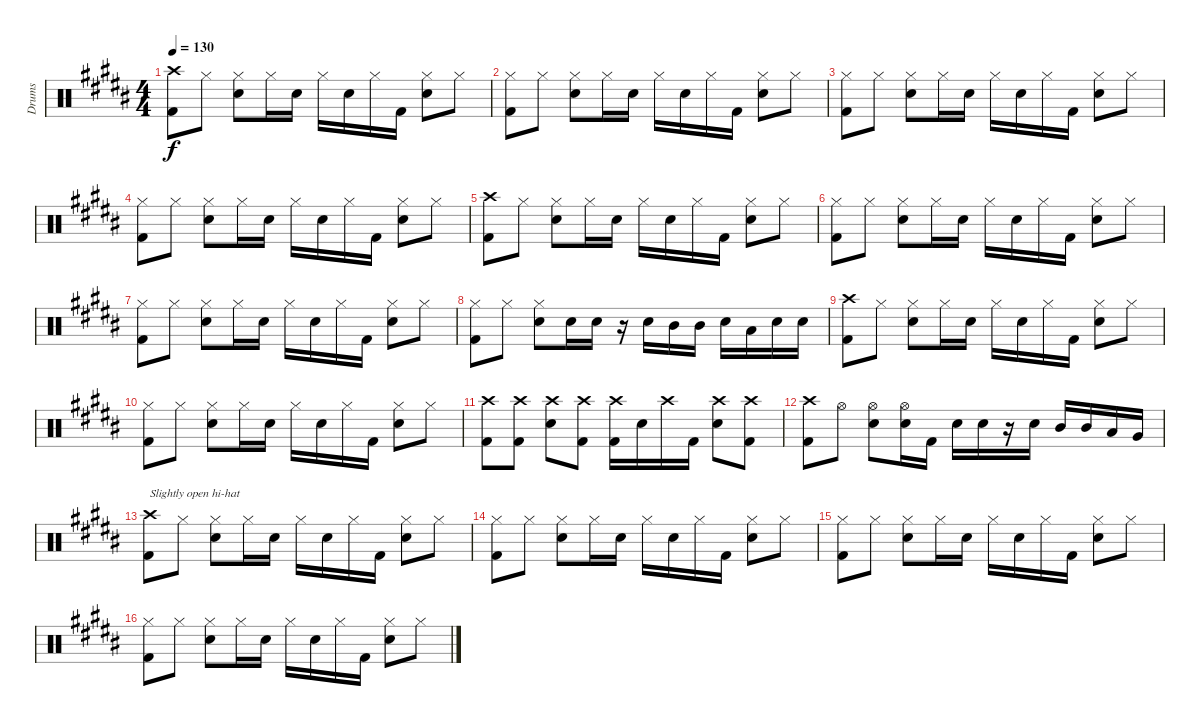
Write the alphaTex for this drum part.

\track ("Drums" "Drums") {instrument percussion}
\staff {score}
\articulation defaults
\ts (4 4)
\tempo 130
\clef neutral
\ks b
("Kick (hit) 2" "Crash high (hit)").8{dy f} "Hi-Hat (closed)".8 ("Snare (hit) 2" "Hi-Hat (closed)").8 "Hi-Hat (closed)".16 "Snare (hit) 2".16 "Hi-Hat (closed)".16 "Snare (hit) 2".16 "Hi-Hat (closed)".16 "Kick (hit) 2".16 ("Snare (hit) 2" "Hi-Hat (closed)").8 "Hi-Hat (closed)".8 |
("Kick (hit) 2" "Hi-Hat (closed)").8 "Hi-Hat (closed)".8 ("Snare (hit) 2" "Hi-Hat (closed)").8 "Hi-Hat (closed)".16 "Snare (hit) 2".16 "Hi-Hat (closed)".16 "Snare (hit) 2".16 "Hi-Hat (closed)".16 "Kick (hit) 2".16 ("Snare (hit) 2" "Hi-Hat (closed)").8 "Hi-Hat (closed)".8 |
("Kick (hit) 2" "Hi-Hat (closed)").8 "Hi-Hat (closed)".8 ("Snare (hit) 2" "Hi-Hat (closed)").8 "Hi-Hat (closed)".16 "Snare (hit) 2".16 "Hi-Hat (closed)".16 "Snare (hit) 2".16 "Hi-Hat (closed)".16 "Kick (hit) 2".16 ("Snare (hit) 2" "Hi-Hat (closed)").8 "Hi-Hat (closed)".8 |
("Kick (hit) 2" "Hi-Hat (closed)").8 "Hi-Hat (closed)".8 ("Snare (hit) 2" "Hi-Hat (closed)").8 "Hi-Hat (closed)".16 "Snare (hit) 2".16 "Hi-Hat (closed)".16 "Snare (hit) 2".16 "Hi-Hat (closed)".16 "Kick (hit) 2".16 ("Snare (hit) 2" "Hi-Hat (closed)").8 "Hi-Hat (closed)".8 |
("Kick (hit) 2" "Crash high (hit)").8 "Hi-Hat (closed)".8 ("Snare (hit) 2" "Hi-Hat (closed)").8 "Hi-Hat (closed)".16 "Snare (hit) 2".16 "Hi-Hat (closed)".16 "Snare (hit) 2".16 "Hi-Hat (closed)".16 "Kick (hit) 2".16 ("Snare (hit) 2" "Hi-Hat (closed)").8 "Hi-Hat (closed)".8 |
("Kick (hit) 2" "Hi-Hat (closed)").8 "Hi-Hat (closed)".8 ("Snare (hit) 2" "Hi-Hat (closed)").8 "Hi-Hat (closed)".16 "Snare (hit) 2".16 "Hi-Hat (closed)".16 "Snare (hit) 2".16 "Hi-Hat (closed)".16 "Kick (hit) 2".16 ("Snare (hit) 2" "Hi-Hat (closed)").8 "Hi-Hat (closed)".8 |
("Kick (hit) 2" "Hi-Hat (closed)").8 "Hi-Hat (closed)".8 ("Snare (hit) 2" "Hi-Hat (closed)").8 "Hi-Hat (closed)".16 "Snare (hit) 2".16 "Hi-Hat (closed)".16 "Snare (hit) 2".16 "Hi-Hat (closed)".16 "Kick (hit) 2".16 ("Snare (hit) 2" "Hi-Hat (closed)").8 "Hi-Hat (closed)".8 |
("Kick (hit) 2" "Hi-Hat (closed)").8 "Hi-Hat (closed)".8 ("Snare (hit) 2" "Hi-Hat (closed)").8 "Snare (hit) 2".16 "Snare (hit) 2".16 r.16 "Snare (hit) 2".16 "Mid Tom (hit)".16 "Mid Tom (hit)".16 "Snare (hit) 2".16 "Low Tom (hit)".16 "Snare (hit) 2".16 "Snare (hit) 2".16 |
("Kick (hit) 2" "Crash high (hit)").8 "Hi-Hat (closed)".8 ("Snare (hit) 2" "Hi-Hat (closed)").8 "Hi-Hat (closed)".16 "Snare (hit) 2".16 "Hi-Hat (closed)".16 "Snare (hit) 2".16 "Hi-Hat (closed)".16 "Kick (hit) 2".16 ("Snare (hit) 2" "Hi-Hat (closed)").8 "Hi-Hat (closed)".8 |
("Kick (hit) 2" "Hi-Hat (closed)").8 "Hi-Hat (closed)".8 ("Snare (hit) 2" "Hi-Hat (closed)").8 "Hi-Hat (closed)".16 "Snare (hit) 2".16 "Hi-Hat (closed)".16 "Snare (hit) 2".16 "Hi-Hat (closed)".16 "Kick (hit) 2".16 ("Snare (hit) 2" "Hi-Hat (closed)").8 "Hi-Hat (closed)".8 |
("Kick (hit) 2" "Crash high (hit)").8 ("Kick (hit) 2" "Crash high (hit)").8 ("Crash high (hit)" "Snare (hit) 2").8 ("Kick (hit) 2" "Crash high (hit)").8 ("Kick (hit) 2" "Crash high (hit)").16 "Snare (hit) 2".16 "Crash high (hit)".16 "Kick (hit) 2".16 ("Crash high (hit)" "Snare (hit) 2").8 ("Kick (hit) 2" "Crash high (hit)").8 |
("Kick (hit) 2" "Crash high (hit)").8 "Hi-Hat (open)".8 ("Snare (hit) 2" "Hi-Hat (open)").8 ("Snare (hit) 2" "Hi-Hat (open)").16 "Kick (hit) 2".16 "Snare (hit) 2".16 "Snare (hit) 2".16 r.16 "Snare (hit) 2".16 "Mid Tom (hit)".16 "Mid Tom (hit)".16 "Low Tom (hit)".16 "Very Low Tom (hit)".16 |
("Kick (hit) 2" "Crash high (hit)").8{txt "Slightly open hi-hat"} "Hi-Hat (closed)".8 ("Snare (hit) 2" "Hi-Hat (closed)").8 "Hi-Hat (closed)".16 "Snare (hit) 2".16 "Hi-Hat (closed)".16 "Snare (hit) 2".16 "Hi-Hat (closed)".16 "Kick (hit) 2".16 ("Snare (hit) 2" "Hi-Hat (closed)").8 "Hi-Hat (closed)".8 |
("Kick (hit) 2" "Hi-Hat (closed)").8 "Hi-Hat (closed)".8 ("Snare (hit) 2" "Hi-Hat (closed)").8 "Hi-Hat (closed)".16 "Snare (hit) 2".16 "Hi-Hat (closed)".16 "Snare (hit) 2".16 "Hi-Hat (closed)".16 "Kick (hit) 2".16 ("Snare (hit) 2" "Hi-Hat (closed)").8 "Hi-Hat (closed)".8 |
("Kick (hit) 2" "Hi-Hat (closed)").8 "Hi-Hat (closed)".8 ("Snare (hit) 2" "Hi-Hat (closed)").8 "Hi-Hat (closed)".16 "Snare (hit) 2".16 "Hi-Hat (closed)".16 "Snare (hit) 2".16 "Hi-Hat (closed)".16 "Kick (hit) 2".16 ("Snare (hit) 2" "Hi-Hat (closed)").8 "Hi-Hat (closed)".8 |
("Kick (hit) 2" "Hi-Hat (closed)").8 "Hi-Hat (closed)".8 ("Snare (hit) 2" "Hi-Hat (closed)").8 "Hi-Hat (closed)".16 "Snare (hit) 2".16 "Hi-Hat (closed)".16 "Snare (hit) 2".16 "Hi-Hat (closed)".16 "Kick (hit) 2".16 ("Snare (hit) 2" "Hi-Hat (closed)").8 "Hi-Hat (closed)".8
